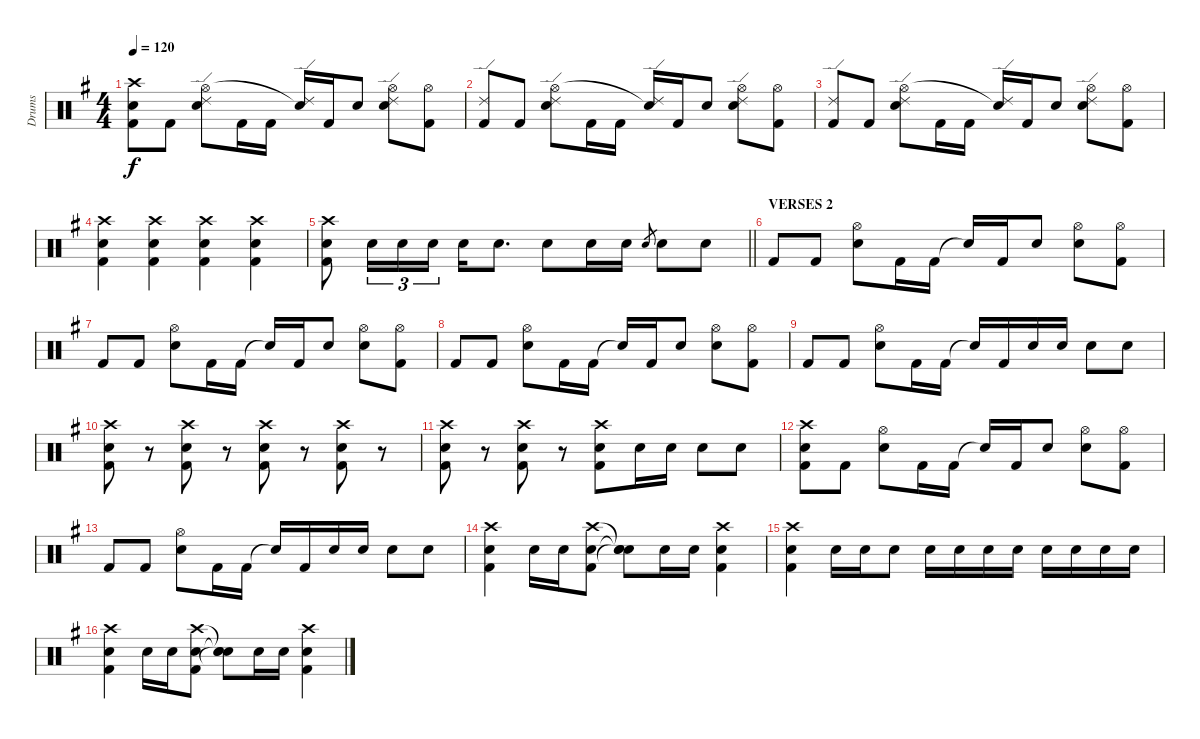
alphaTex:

\track ("Drums" "Drums") {instrument percussion}
\staff {score}
\articulation defaults
\ts (4 4)
\tempo 120
\clef neutral
\ks eminor
("Crash high (hit)" "Electric Snare (hit)" "Kick (hit) 2").8{dy f} "Kick (hit) 2".8 ("Ride (edge) 2" "Hi-Hat (open)" "Electric Snare (hit)").8 "Kick (hit) 2".16 "Kick (hit) 2".16 ("Ride (edge) 2" "Snare (hit)"{t}).16 "Kick (hit) 2".16 "Electric Snare (hit)".8 ("Ride (edge) 2" "Hi-Hat (open)" "Electric Snare (hit)").8 ("Hi-Hat (open)" "Kick (hit) 2").8 |
("Ride (edge) 2" "Kick (hit) 2").8 "Kick (hit) 2".8 ("Ride (edge) 2" "Hi-Hat (open)" "Electric Snare (hit)").8 "Kick (hit) 2".16 "Kick (hit) 2".16 ("Ride (edge) 2" "Snare (hit)"{t}).16 "Kick (hit) 2".16 "Electric Snare (hit)".8 ("Ride (edge) 2" "Hi-Hat (open)" "Electric Snare (hit)").8 ("Hi-Hat (open)" "Kick (hit) 2").8 |
("Ride (edge) 2" "Kick (hit) 2").8 "Kick (hit) 2".8 ("Ride (edge) 2" "Hi-Hat (open)" "Electric Snare (hit)").8 "Kick (hit) 2".16 "Kick (hit) 2".16 ("Ride (edge) 2" "Snare (hit)"{t}).16 "Kick (hit) 2".16 "Electric Snare (hit)".8 ("Ride (edge) 2" "Hi-Hat (open)" "Electric Snare (hit)").8 ("Hi-Hat (open)" "Kick (hit) 2").8 |
("Crash high (hit)" "Electric Snare (hit)" "Kick (hit) 2").4 ("Crash high (hit)" "Electric Snare (hit)" "Kick (hit) 2").4 ("Crash high (hit)" "Electric Snare (hit)" "Kick (hit) 2").4 ("Crash high (hit)" "Electric Snare (hit)" "Kick (hit) 2").4 |
\barLineRight lightlight
("Crash high (hit)" "Electric Snare (hit)" "Kick (hit) 2").8 "Electric Snare (hit)".16{tu (3 2)} "Electric Snare (hit)".16{tu (3 2)} "Electric Snare (hit)".16{tu (3 2)} "Electric Snare (hit)".16 "Electric Snare (hit)".8{d} "Electric Snare (hit)".8 "Electric Snare (hit)".16 "Electric Snare (hit)".16 "Electric Snare (hit)".8{gr} "Electric Snare (hit)".8 "Electric Snare (hit)".8 |
\section ("" "VERSES 2")
"Kick (hit) 2".8 "Kick (hit) 2".8 ("Hi-Hat (open)" "Electric Snare (hit)").8 "Kick (hit) 2".16 "Kick (hit) 2".16 "Snare (hit)"{t}.16 "Kick (hit) 2".16 "Electric Snare (hit)".8 ("Hi-Hat (open)" "Electric Snare (hit)").8 ("Hi-Hat (open)" "Kick (hit) 2").8 |
"Kick (hit) 2".8 "Kick (hit) 2".8 ("Hi-Hat (open)" "Electric Snare (hit)").8 "Kick (hit) 2".16 "Kick (hit) 2".16 "Snare (hit)"{t}.16 "Kick (hit) 2".16 "Electric Snare (hit)".8 ("Hi-Hat (open)" "Electric Snare (hit)").8 ("Hi-Hat (open)" "Kick (hit) 2").8 |
"Kick (hit) 2".8 "Kick (hit) 2".8 ("Hi-Hat (open)" "Electric Snare (hit)").8 "Kick (hit) 2".16 "Kick (hit) 2".16 "Snare (hit)"{t}.16 "Kick (hit) 2".16 "Electric Snare (hit)".8 ("Hi-Hat (open)" "Electric Snare (hit)").8 ("Hi-Hat (open)" "Kick (hit) 2").8 |
"Kick (hit) 2".8 "Kick (hit) 2".8 ("Hi-Hat (open)" "Electric Snare (hit)").8 "Kick (hit) 2".16 "Kick (hit) 2".16 "Snare (hit)"{t}.16 "Kick (hit) 2".16 "Electric Snare (hit)".16 "Electric Snare (hit)".16 "Electric Snare (hit)".8 "Electric Snare (hit)".8 |
("Crash high (hit)" "Electric Snare (hit)" "Kick (hit) 2").8 r.8 ("Crash high (hit)" "Electric Snare (hit)" "Kick (hit) 2").8 r.8 ("Crash high (hit)" "Electric Snare (hit)" "Kick (hit) 2").8 r.8 ("Crash high (hit)" "Electric Snare (hit)" "Kick (hit) 2").8 r.8 |
("Crash high (hit)" "Electric Snare (hit)" "Kick (hit) 2").8 r.8 ("Crash high (hit)" "Electric Snare (hit)" "Kick (hit) 2").8 r.8 ("Crash high (hit)" "Electric Snare (hit)" "Kick (hit) 2").8 "Electric Snare (hit)".16 "Electric Snare (hit)".16 "Electric Snare (hit)".8 "Electric Snare (hit)".8 |
("Crash high (hit)" "Electric Snare (hit)" "Kick (hit) 2").8 "Kick (hit) 2".8 ("Hi-Hat (open)" "Electric Snare (hit)").8 "Kick (hit) 2".16 "Kick (hit) 2".16 "Snare (hit)"{t}.16 "Kick (hit) 2".16 "Electric Snare (hit)".8 ("Hi-Hat (open)" "Electric Snare (hit)").8 ("Hi-Hat (open)" "Kick (hit) 2").8 |
"Kick (hit) 2".8 "Kick (hit) 2".8 ("Hi-Hat (open)" "Electric Snare (hit)").8 "Kick (hit) 2".16 "Kick (hit) 2".16 "Snare (hit)"{t}.16 "Kick (hit) 2".16 "Electric Snare (hit)".16 "Electric Snare (hit)".16 "Electric Snare (hit)".8 "Electric Snare (hit)".8 |
("Crash high (hit)" "Electric Snare (hit)" "Kick (hit) 2").4 "Electric Snare (hit)".16 "Electric Snare (hit)".16 ("Crash high (hit)" "Electric Snare (hit)" "Kick (hit) 2").8 ("Snare (hit)"{t} "Snare (hit)"{t} "Snare (hit)"{t}).8 "Electric Snare (hit)".16 "Electric Snare (hit)".16 ("Crash high (hit)" "Electric Snare (hit)" "Kick (hit) 2").4 |
("Crash high (hit)" "Electric Snare (hit)" "Kick (hit) 2").4 "Electric Snare (hit)".16 "Electric Snare (hit)".16 "Electric Snare (hit)".8 "Electric Snare (hit)".16 "Electric Snare (hit)".16 "Electric Snare (hit)".16 "Electric Snare (hit)".16 "Electric Snare (hit)".16 "Electric Snare (hit)".16 "Electric Snare (hit)".16 "Electric Snare (hit)".16 |
("Crash high (hit)" "Electric Snare (hit)" "Kick (hit) 2").4 "Electric Snare (hit)".16 "Electric Snare (hit)".16 ("Crash high (hit)" "Electric Snare (hit)" "Kick (hit) 2").8 ("Snare (hit)"{t} "Snare (hit)"{t} "Snare (hit)"{t}).8 "Electric Snare (hit)".16 "Electric Snare (hit)".16 ("Crash high (hit)" "Electric Snare (hit)" "Kick (hit) 2").4
